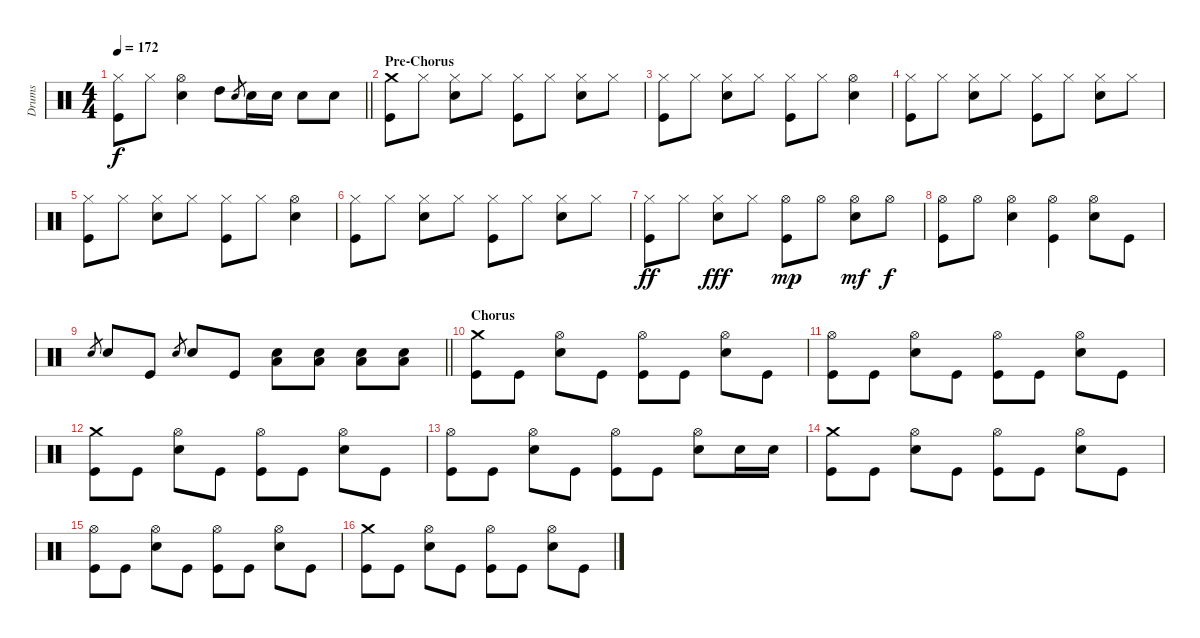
\track ("Drums" "Drums") {instrument percussion}
\staff {score}
\articulation defaults
\ts (4 4)
\tempo 172
\clef neutral
\barLineRight lightlight
\ks c
("Hi-Hat (closed)" "Kick (hit)").8{dy f} "Hi-Hat (closed)".8 ("Hi-Hat (open)" "Snare (hit) 2").4 "High Tom (hit)".8 "Snare (hit) 2".8{gr} "Snare (hit) 2".16 "Snare (hit) 2".16 "Snare (hit) 2".8 "Snare (hit) 2".8 |
\section ("" "Pre-Chorus")
("Crash medium (hit)" "Kick (hit)").8 "Hi-Hat (closed)".8 ("Hi-Hat (closed)" "Snare (hit) 2").8 "Hi-Hat (closed)".8 ("Hi-Hat (closed)" "Kick (hit)").8 "Hi-Hat (closed)".8 ("Hi-Hat (closed)" "Snare (hit) 2").8 "Hi-Hat (closed)".8 |
("Hi-Hat (closed)" "Kick (hit)").8 "Hi-Hat (closed)".8 ("Hi-Hat (closed)" "Snare (hit) 2").8 "Hi-Hat (closed)".8 ("Hi-Hat (closed)" "Kick (hit)").8 "Hi-Hat (closed)".8 ("Hi-Hat (open)" "Snare (hit) 2").4 |
("Hi-Hat (closed)" "Kick (hit)").8 "Hi-Hat (closed)".8 ("Hi-Hat (closed)" "Snare (hit) 2").8 "Hi-Hat (closed)".8 ("Hi-Hat (closed)" "Kick (hit)").8 "Hi-Hat (closed)".8 ("Hi-Hat (closed)" "Snare (hit) 2").8 "Hi-Hat (closed)".8 |
("Hi-Hat (closed)" "Kick (hit)").8 "Hi-Hat (closed)".8 ("Hi-Hat (closed)" "Snare (hit) 2").8 "Hi-Hat (closed)".8 ("Hi-Hat (closed)" "Kick (hit)").8 "Hi-Hat (closed)".8 ("Hi-Hat (open)" "Snare (hit) 2").4 |
("Hi-Hat (closed)" "Kick (hit)").8 "Hi-Hat (closed)".8 ("Hi-Hat (closed)" "Snare (hit) 2").8 "Hi-Hat (closed)".8 ("Hi-Hat (closed)" "Kick (hit)").8 "Hi-Hat (closed)".8 ("Hi-Hat (closed)" "Snare (hit) 2").8 "Hi-Hat (closed)".8 |
("Hi-Hat (closed)" "Kick (hit)").8{dy ff} "Hi-Hat (closed)".8 ("Hi-Hat (closed)" "Snare (hit) 2").8{dy fff} "Hi-Hat (closed)".8 ("Hi-Hat (open)" "Kick (hit)").8{dy mp} "Hi-Hat (open)".8 ("Hi-Hat (open)" "Snare (hit) 2").8{dy mf} "Hi-Hat (open)".8{dy f} |
("Hi-Hat (open)" "Kick (hit)").8 "Hi-Hat (open)".8 ("Hi-Hat (open)" "Snare (hit) 2").4 ("Hi-Hat (open)" "Kick (hit)").4 ("Hi-Hat (open)" "Snare (hit) 2").8 "Kick (hit)".8 |
\barLineRight lightlight "Snare (hit) 2".8{gr} "Snare (hit) 2".8 "Kick (hit)".8 "Snare (hit) 2".8{gr} "Snare (hit) 2".8 "Kick (hit)".8
("Snare (hit) 2" "Low Floor Tom (hit)").8 ("Snare (hit) 2" "Low Floor Tom (hit)").8 ("Snare (hit) 2" "Low Floor Tom (hit)").8 ("Snare (hit) 2" "Low Floor Tom (hit)").8 |
\section ("" "Chorus")
("Crash medium (hit)" "Kick (hit)").8 "Kick (hit)".8 ("Hi-Hat (open)" "Snare (hit) 2").8 "Kick (hit)".8 ("Hi-Hat (open)" "Kick (hit)").8 "Kick (hit)".8 ("Hi-Hat (open)" "Snare (hit) 2").8 "Kick (hit)".8 |
("Hi-Hat (open)" "Kick (hit)").8 "Kick (hit)".8 ("Hi-Hat (open)" "Snare (hit) 2").8 "Kick (hit)".8 ("Hi-Hat (open)" "Kick (hit)").8 "Kick (hit)".8 ("Hi-Hat (open)" "Snare (hit) 2").8 "Kick (hit)".8 |
("Crash medium (hit)" "Kick (hit)").8 "Kick (hit)".8 ("Hi-Hat (open)" "Snare (hit) 2").8 "Kick (hit)".8 ("Hi-Hat (open)" "Kick (hit)").8 "Kick (hit)".8 ("Hi-Hat (open)" "Snare (hit) 2").8 "Kick (hit)".8 |
("Hi-Hat (open)" "Kick (hit)").8 "Kick (hit)".8 ("Hi-Hat (open)" "Snare (hit) 2").8 "Kick (hit)".8 ("Hi-Hat (open)" "Kick (hit)").8 "Kick (hit)".8 ("Hi-Hat (open)" "Snare (hit) 2").8 "Snare (hit) 2".16 "Snare (hit) 2".16 |
("Crash medium (hit)" "Kick (hit)").8 "Kick (hit)".8 ("Hi-Hat (open)" "Snare (hit) 2").8 "Kick (hit)".8 ("Hi-Hat (open)" "Kick (hit)").8 "Kick (hit)".8 ("Hi-Hat (open)" "Snare (hit) 2").8 "Kick (hit)".8 |
("Hi-Hat (open)" "Kick (hit)").8 "Kick (hit)".8 ("Hi-Hat (open)" "Snare (hit) 2").8 "Kick (hit)".8 ("Hi-Hat (open)" "Kick (hit)").8 "Kick (hit)".8 ("Hi-Hat (open)" "Snare (hit) 2").8 "Kick (hit)".8 |
("Crash medium (hit)" "Kick (hit)").8 "Kick (hit)".8 ("Hi-Hat (open)" "Snare (hit) 2").8 "Kick (hit)".8 ("Hi-Hat (open)" "Kick (hit)").8 "Kick (hit)".8 ("Hi-Hat (open)" "Snare (hit) 2").8 "Kick (hit)".8
